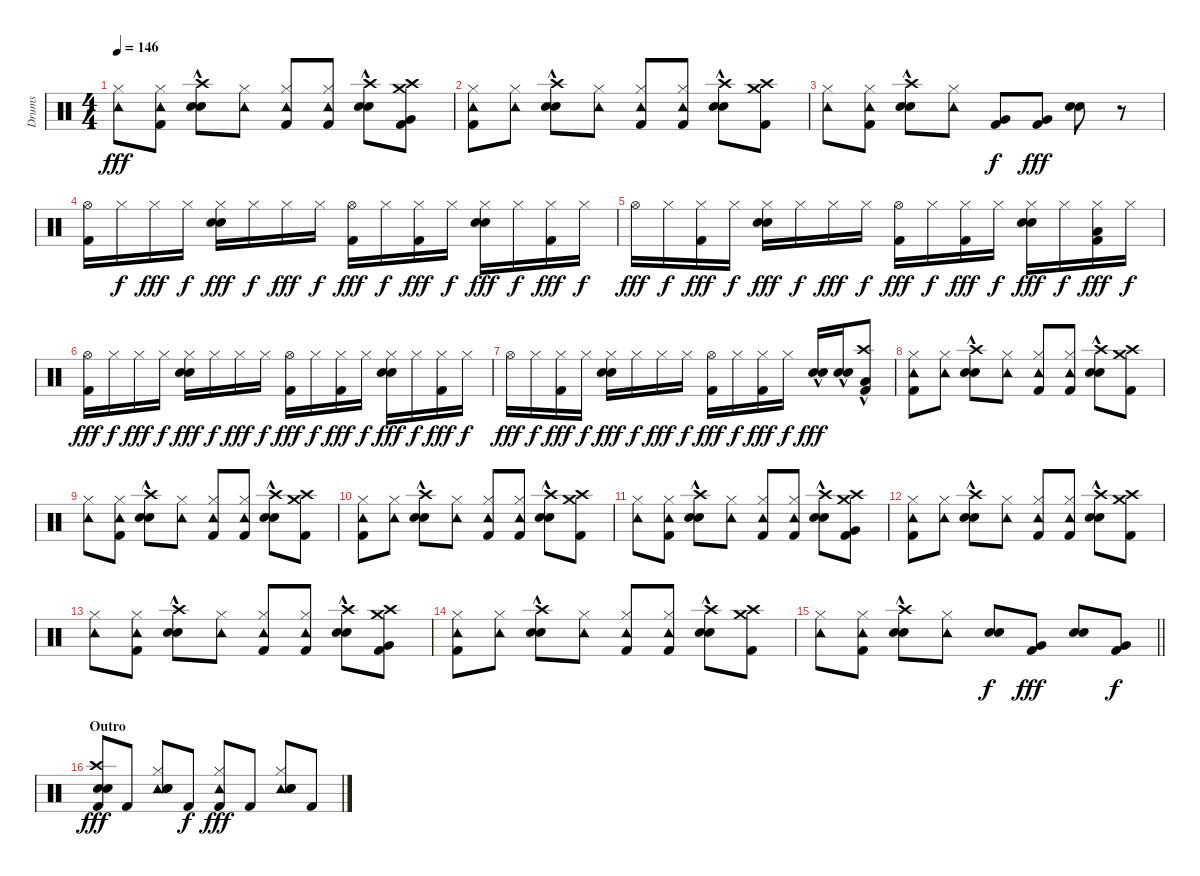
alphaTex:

\track ("Drums" "Drums") {instrument percussion}
\staff {score}
\articulation defaults
\ts (4 4)
\tempo 146
\clef neutral
\ks c
("Tambourine (hit)" "Hi-Hat (closed)").8{dy fff} ("Tambourine (hit)" "Hi-Hat (closed)" "Kick (hit) 2").8 ("Crash high (hit)"{hac} "Electric Snare (hit)" "Electric Snare (hit)").8 ("Tambourine (hit)" "Hi-Hat (closed)").8 ("Tambourine (hit)" "Hi-Hat (closed)" "Kick (hit) 2").8 ("Tambourine (hit)" "Hi-Hat (closed)" "Kick (hit) 2").8 ("Crash high (hit)"{hac} "Electric Snare (hit)" "Electric Snare (hit)").8 ("Crash high (hit)" "Crash medium (hit)" "Very Low Tom (hit)" "Kick (hit) 2").8 |
("Tambourine (hit)" "Hi-Hat (closed)" "Kick (hit) 2").8 ("Tambourine (hit)" "Hi-Hat (closed)").8 ("Crash high (hit)"{hac} "Electric Snare (hit)" "Electric Snare (hit)").8 ("Tambourine (hit)" "Hi-Hat (closed)").8 ("Tambourine (hit)" "Hi-Hat (closed)" "Kick (hit) 2").8 ("Tambourine (hit)" "Hi-Hat (closed)" "Kick (hit) 2").8 ("Crash high (hit)"{hac} "Electric Snare (hit)" "Electric Snare (hit)").8 ("Crash high (hit)" "Crash medium (hit)" "Kick (hit) 2").8 |
("Tambourine (hit)" "Hi-Hat (closed)").8 ("Tambourine (hit)" "Hi-Hat (closed)" "Kick (hit) 2").8 ("Crash high (hit)"{hac} "Electric Snare (hit)" "Electric Snare (hit)").8 ("Tambourine (hit)" "Hi-Hat (closed)").8 ("Very Low Tom (hit)" "Kick (hit) 2").8{dy f} ("Very Low Tom (hit)" "Kick (hit) 2").8{dy fff} ("Electric Snare (hit)" "Electric Snare (hit)").8 r.8 |
("Hi-Hat (open)" "Kick (hit) 2").16 "Hi-Hat (closed)".16{dy f} "Hi-Hat (closed)".16{dy fff} "Hi-Hat (closed)".16{dy f} ("Hi-Hat (closed)" "Electric Snare (hit)" "Electric Snare (hit)").16{dy fff} "Hi-Hat (closed)".16{dy f} "Hi-Hat (closed)".16{dy fff} "Hi-Hat (closed)".16{dy f} ("Hi-Hat (open)" "Kick (hit) 2").16{dy fff} "Hi-Hat (closed)".16{dy f} ("Hi-Hat (closed)" "Kick (hit) 2").16{dy fff} "Hi-Hat (closed)".16{dy f} ("Hi-Hat (closed)" "Electric Snare (hit)" "Electric Snare (hit)").16{dy fff} "Hi-Hat (closed)".16{dy f} ("Hi-Hat (closed)" "Kick (hit) 2").16{dy fff} "Hi-Hat (closed)".16{dy f} |
"Hi-Hat (open)".16{dy fff} "Hi-Hat (closed)".16{dy f} ("Hi-Hat (closed)" "Kick (hit) 2").16{dy fff} "Hi-Hat (closed)".16{dy f} ("Hi-Hat (closed)" "Electric Snare (hit)" "Electric Snare (hit)").16{dy fff} "Hi-Hat (closed)".16{dy f} "Hi-Hat (closed)".16{dy fff} "Hi-Hat (closed)".16{dy f} ("Hi-Hat (open)" "Kick (hit) 2").16{dy fff} "Hi-Hat (closed)".16{dy f} ("Hi-Hat (closed)" "Kick (hit) 2").16{dy fff} "Hi-Hat (closed)".16{dy f} ("Hi-Hat (closed)" "Electric Snare (hit)" "Electric Snare (hit)").16{dy fff} "Hi-Hat (closed)".16{dy f} ("Hi-Hat (closed)" "Low Tom (hit)" "Kick (hit) 2").16{dy fff} "Hi-Hat (closed)".16{dy f} |
("Hi-Hat (open)" "Kick (hit) 2").16{dy fff} "Hi-Hat (closed)".16{dy f} "Hi-Hat (closed)".16{dy fff} "Hi-Hat (closed)".16{dy f} ("Hi-Hat (closed)" "Electric Snare (hit)" "Electric Snare (hit)").16{dy fff} "Hi-Hat (closed)".16{dy f} "Hi-Hat (closed)".16{dy fff} "Hi-Hat (closed)".16{dy f} ("Hi-Hat (open)" "Kick (hit) 2").16{dy fff} "Hi-Hat (closed)".16{dy f} ("Hi-Hat (closed)" "Kick (hit) 2").16{dy fff} "Hi-Hat (closed)".16{dy f} ("Hi-Hat (closed)" "Electric Snare (hit)" "Electric Snare (hit)").16{dy fff} "Hi-Hat (closed)".16{dy f} ("Hi-Hat (closed)" "Kick (hit) 2").16{dy fff} "Hi-Hat (closed)".16{dy f} |
"Hi-Hat (open)".16{dy fff} "Hi-Hat (closed)".16{dy f} ("Hi-Hat (closed)" "Kick (hit) 2").16{dy fff} "Hi-Hat (closed)".16{dy f} ("Hi-Hat (closed)" "Electric Snare (hit)" "Electric Snare (hit)").16{dy fff} "Hi-Hat (closed)".16{dy f} "Hi-Hat (closed)".16{dy fff} "Hi-Hat (closed)".16{dy f} ("Hi-Hat (open)" "Kick (hit) 2").16{dy fff} "Hi-Hat (closed)".16{dy f} ("Hi-Hat (closed)" "Kick (hit) 2").16{dy fff} "Hi-Hat (closed)".16{dy f} ("Electric Snare (hit)"{hac} "Electric Snare (hit)"{hac}).16{dy fff} ("Electric Snare (hit)"{hac} "Electric Snare (hit)"{hac}).16 ("Crash high (hit)"{hac} "Low Tom (hit)"{hac} "Kick (hit) 2"{hac}).8 |
("Tambourine (hit)" "Hi-Hat (closed)" "Kick (hit) 2").8 ("Tambourine (hit)" "Hi-Hat (closed)").8 ("Crash high (hit)"{hac} "Electric Snare (hit)" "Electric Snare (hit)").8 ("Tambourine (hit)" "Hi-Hat (closed)").8 ("Tambourine (hit)" "Hi-Hat (closed)" "Kick (hit) 2").8 ("Tambourine (hit)" "Hi-Hat (closed)" "Kick (hit) 2").8 ("Crash high (hit)"{hac} "Electric Snare (hit)" "Electric Snare (hit)").8 ("Crash high (hit)" "Crash medium (hit)" "Kick (hit) 2").8 |
("Tambourine (hit)" "Hi-Hat (closed)").8 ("Tambourine (hit)" "Hi-Hat (closed)" "Kick (hit) 2").8 ("Crash high (hit)"{hac} "Electric Snare (hit)" "Electric Snare (hit)").8 ("Tambourine (hit)" "Hi-Hat (closed)").8 ("Tambourine (hit)" "Hi-Hat (closed)" "Kick (hit) 2").8 ("Tambourine (hit)" "Hi-Hat (closed)" "Kick (hit) 2").8 ("Crash high (hit)"{hac} "Electric Snare (hit)" "Electric Snare (hit)").8 ("Crash high (hit)" "Crash medium (hit)" "Kick (hit) 2").8 |
("Tambourine (hit)" "Hi-Hat (closed)" "Kick (hit) 2").8 ("Tambourine (hit)" "Hi-Hat (closed)").8 ("Crash high (hit)"{hac} "Electric Snare (hit)" "Electric Snare (hit)").8 ("Tambourine (hit)" "Hi-Hat (closed)").8 ("Tambourine (hit)" "Hi-Hat (closed)" "Kick (hit) 2").8 ("Tambourine (hit)" "Hi-Hat (closed)" "Kick (hit) 2").8 ("Crash high (hit)"{hac} "Electric Snare (hit)" "Electric Snare (hit)").8 ("Crash high (hit)" "Crash medium (hit)" "Kick (hit) 2").8 |
("Tambourine (hit)" "Hi-Hat (closed)").8 ("Tambourine (hit)" "Hi-Hat (closed)" "Kick (hit) 2").8 ("Crash high (hit)"{hac} "Electric Snare (hit)" "Electric Snare (hit)").8 ("Tambourine (hit)" "Hi-Hat (closed)").8 ("Tambourine (hit)" "Hi-Hat (closed)" "Kick (hit) 2").8 ("Tambourine (hit)" "Hi-Hat (closed)" "Kick (hit) 2").8 ("Crash high (hit)"{hac} "Electric Snare (hit)" "Electric Snare (hit)").8 ("Crash high (hit)" "Crash medium (hit)" "Very Low Tom (hit)" "Kick (hit) 2").8 |
("Tambourine (hit)" "Hi-Hat (closed)" "Kick (hit) 2").8 ("Tambourine (hit)" "Hi-Hat (closed)").8 ("Crash high (hit)"{hac} "Electric Snare (hit)" "Electric Snare (hit)").8 ("Tambourine (hit)" "Hi-Hat (closed)").8 ("Tambourine (hit)" "Hi-Hat (closed)" "Kick (hit) 2").8 ("Tambourine (hit)" "Hi-Hat (closed)" "Kick (hit) 2").8 ("Crash high (hit)"{hac} "Electric Snare (hit)" "Electric Snare (hit)").8 ("Crash high (hit)" "Crash medium (hit)" "Kick (hit) 2").8 |
("Tambourine (hit)" "Hi-Hat (closed)").8 ("Tambourine (hit)" "Hi-Hat (closed)" "Kick (hit) 2").8 ("Crash high (hit)"{hac} "Electric Snare (hit)" "Electric Snare (hit)").8 ("Tambourine (hit)" "Hi-Hat (closed)").8 ("Tambourine (hit)" "Hi-Hat (closed)" "Kick (hit) 2").8 ("Tambourine (hit)" "Hi-Hat (closed)" "Kick (hit) 2").8 ("Crash high (hit)"{hac} "Electric Snare (hit)" "Electric Snare (hit)").8 ("Crash high (hit)" "Crash medium (hit)" "Very Low Tom (hit)" "Kick (hit) 2").8 |
("Tambourine (hit)" "Hi-Hat (closed)" "Kick (hit) 2").8 ("Tambourine (hit)" "Hi-Hat (closed)").8 ("Crash high (hit)"{hac} "Electric Snare (hit)" "Electric Snare (hit)").8 ("Tambourine (hit)" "Hi-Hat (closed)").8 ("Tambourine (hit)" "Hi-Hat (closed)" "Kick (hit) 2").8 ("Tambourine (hit)" "Hi-Hat (closed)" "Kick (hit) 2").8 ("Crash high (hit)"{hac} "Electric Snare (hit)" "Electric Snare (hit)").8 ("Crash high (hit)" "Crash medium (hit)" "Kick (hit) 2").8 |
\barLineRight lightlight
("Tambourine (hit)" "Hi-Hat (closed)").8 ("Tambourine (hit)" "Hi-Hat (closed)" "Kick (hit) 2").8 ("Crash high (hit)"{hac} "Electric Snare (hit)" "Electric Snare (hit)").8 ("Tambourine (hit)" "Hi-Hat (closed)").8 ("Electric Snare (hit)" "Electric Snare (hit)").8{dy f} ("Very Low Tom (hit)" "Kick (hit) 2").8{dy fff} ("Electric Snare (hit)" "Electric Snare (hit)").8 ("Very Low Tom (hit)" "Kick (hit) 2").8{dy f} |
\section ("" "Outro")
("Crash high (hit)" "Electric Snare (hit)" "Electric Snare (hit)" "Kick (hit) 2").8{dy fff} "Kick (hit) 2".8 ("Hi-Hat (closed)" "Tambourine (hit)" "Electric Snare (hit)" "Electric Snare (hit)").8 "Kick (hit) 2".8{dy f} ("Hi-Hat (closed)" "Tambourine (hit)" "Kick (hit) 2").8{dy fff} "Kick (hit) 2".8 ("Hi-Hat (closed)" "Tambourine (hit)" "Electric Snare (hit)" "Electric Snare (hit)").8 "Kick (hit) 2".8
